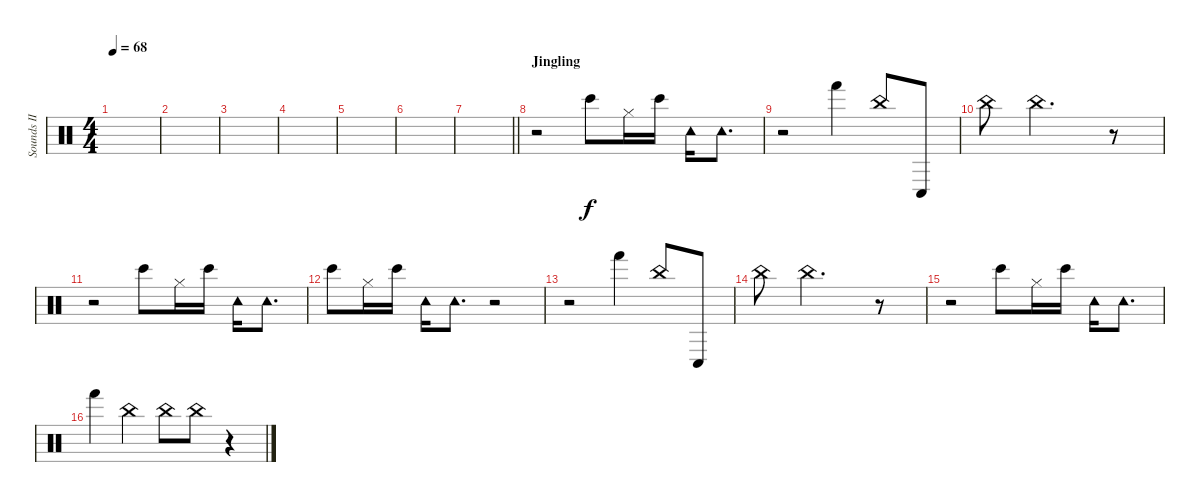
\track ("Sounds II (Generic)" "Sounds II ") {instrument percussion}
\staff {score}
\articulation defaults
\ts (4 4)
\tempo 68
\clef neutral
\ks c
|
|
|
|
|
|
\barLineRight lightlight
|
\section ("" "Jingling")
r.2 "Bongo High (hit)".8 "Hi-Hat (closed)".16 "Bongo High (hit)".16 "Tambourine (hit)".16 "Tambourine (hit)".8{d} |
r.2 "Hand (hit)".4 "China (hit)".8 "Conga low (hit)".8 |
"China (hit)".8 "China (hit)".2{d} r.8 |
r.2 "Bongo High (hit)".8 "Hi-Hat (closed)".16 "Bongo High (hit)".16 "Tambourine (hit)".16 "Tambourine (hit)".8{d} |
"Bongo High (hit)".8 "Hi-Hat (closed)".16 "Bongo High (hit)".16 "Tambourine (hit)".16 "Tambourine (hit)".8{d} r.2 |
r.2 "Hand (hit)".4 "China (hit)".8 "Conga low (hit)".8 |
"China (hit)".8 "China (hit)".2{d} r.8 |
r.2 "Bongo High (hit)".8 "Hi-Hat (closed)".16 "Bongo High (hit)".16 "Tambourine (hit)".16 "Tambourine (hit)".8{d} |
"Hand (hit)".4 "China (hit)".4 "China (hit)".8 "China (hit)".8 r.4
